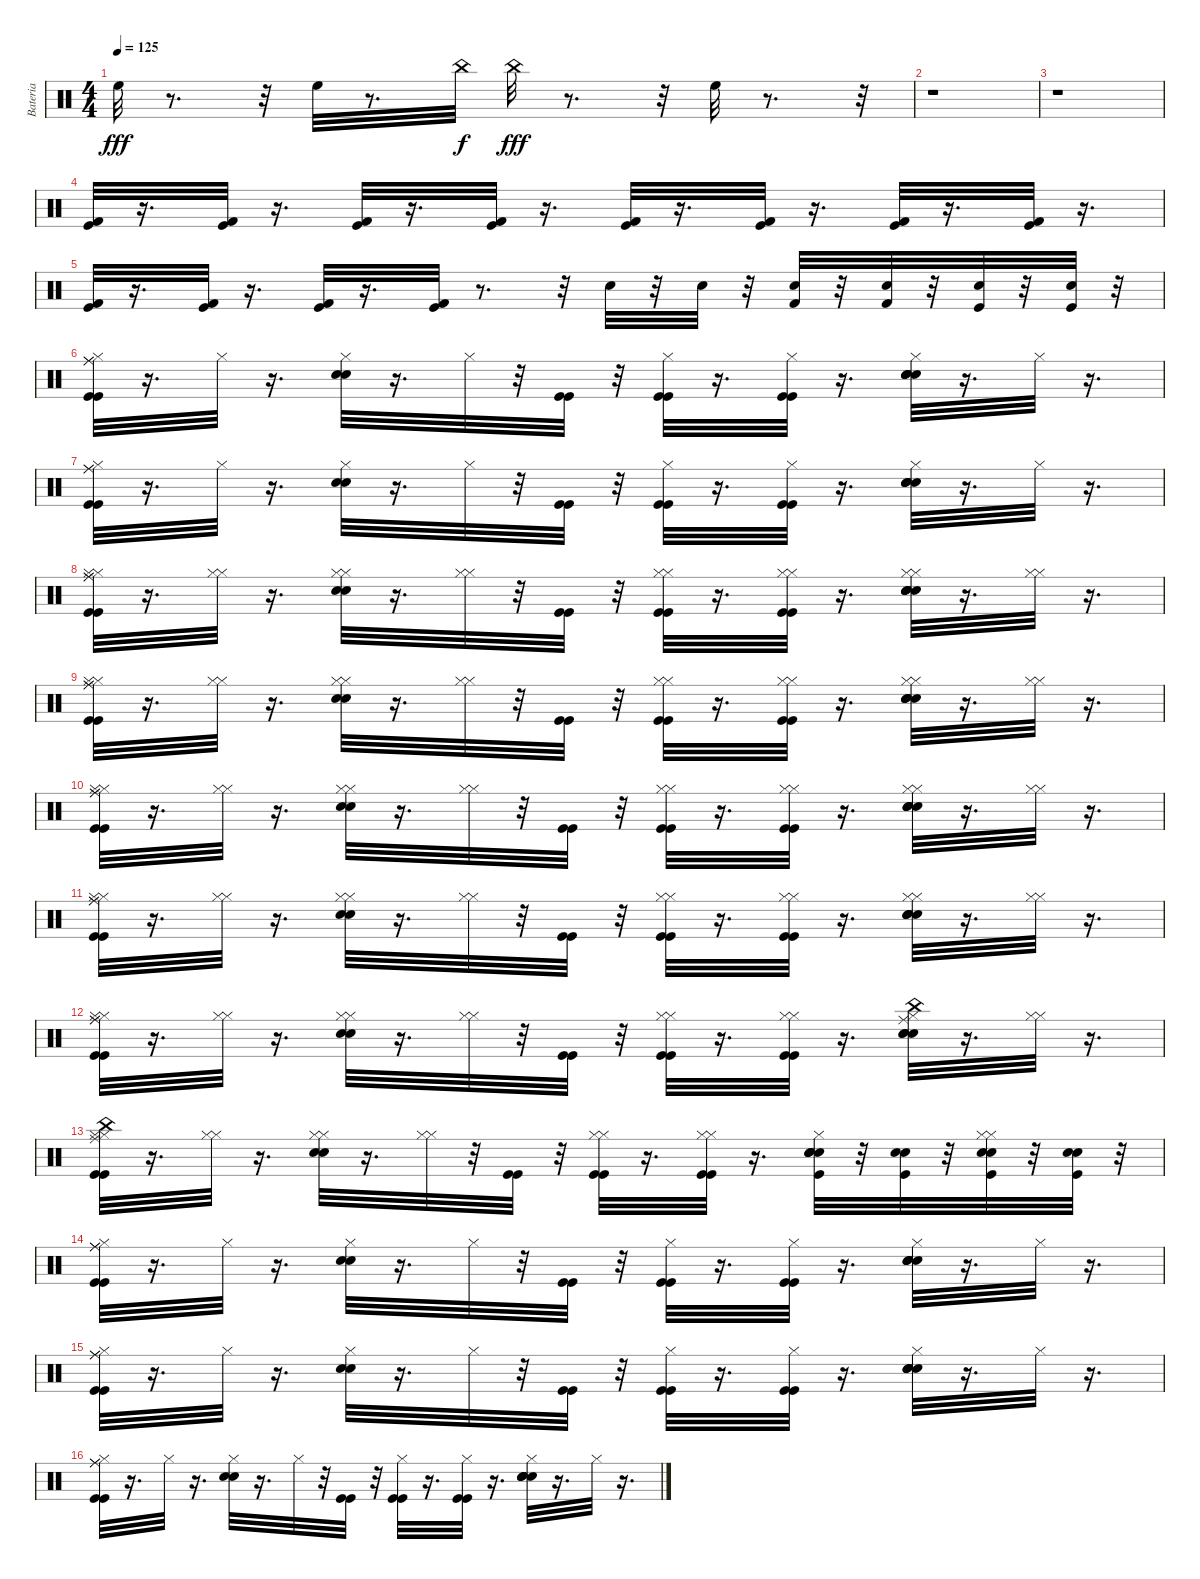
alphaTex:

\track ("Bateria" "Bateria") {instrument percussion}
\staff {score}
\articulation defaults
\ts (4 4)
\tempo 125
\clef neutral
\ks c "High Floor Tom (hit)".32{dy fff}
r.8{d} r.32 "High Floor Tom (hit)".32 r.8{d} "China (hit)".32{dy f} "China (hit)".32{dy fff} r.8{d} r.32 "High Floor Tom (hit)".32 r.8{d} r.32 |
r.1 |
r.1 |
("Kick (hit) 2" "Kick (hit)").32{volume 0} r.16{d} ("Kick (hit) 2" "Kick (hit)").32{volume 0} r.16{d} ("Kick (hit) 2" "Kick (hit)").32{volume 2} r.16{d} ("Kick (hit) 2" "Kick (hit)").32{volume 3} r.16{d} ("Kick (hit) 2" "Kick (hit)").32{volume 5} r.16{d} ("Kick (hit) 2" "Kick (hit)").32{volume 6} r.16{d} ("Kick (hit) 2" "Kick (hit)").32{volume 8} r.16{d} ("Kick (hit) 2" "Kick (hit)").32{volume 9} r.16{d} |
("Kick (hit) 2" "Kick (hit)").32{volume 10} r.16{d} ("Kick (hit) 2" "Kick (hit)").32{volume 12} r.16{d} ("Kick (hit) 2" "Kick (hit)").32{volume 13} r.16{d} ("Kick (hit) 2" "Kick (hit)").32{volume 15} r.8{d} r.32 "Electric Snare (hit)".32{volume 16} r.32 "Electric Snare (hit)".32 r.32 ("Kick (hit) 2" "Electric Snare (hit)").32 r.32 ("Kick (hit) 2" "Electric Snare (hit)").32 r.32 ("Snare (hit) 2" "Kick (hit)").32 r.32 ("Snare (hit) 2" "Kick (hit)").32 r.32 |
("Hi-Hat (closed)" "Kick (hit)" "Ride (middle)" "Kick (hit)" "Ride (middle)").32 r.16{d} "Hi-Hat (closed)".32 r.16{d} ("Snare (hit) 2" "Electric Snare (hit)" "Hi-Hat (closed)").32 r.16{d} "Hi-Hat (closed)".32 r.32 ("Kick (hit)" "Kick (hit)").32 r.32 ("Hi-Hat (closed)" "Kick (hit)" "Kick (hit)").32 r.16{d} ("Hi-Hat (closed)" "Kick (hit)" "Kick (hit)").32 r.16{d} ("Hi-Hat (closed)" "Snare (hit) 2" "Electric Snare (hit)" "Snare (hit) 2" "Electric Snare (hit)").32 r.16{d} "Hi-Hat (closed)".32 r.16{d} |
("Hi-Hat (closed)" "Kick (hit)" "Ride (middle)" "Kick (hit)" "Ride (middle)").32 r.16{d} "Hi-Hat (closed)".32 r.16{d} ("Snare (hit) 2" "Electric Snare (hit)" "Hi-Hat (closed)").32 r.16{d} "Hi-Hat (closed)".32 r.32 ("Kick (hit)" "Kick (hit)").32 r.32 ("Hi-Hat (closed)" "Kick (hit)" "Kick (hit)").32 r.16{d} ("Hi-Hat (closed)" "Kick (hit)" "Kick (hit)").32 r.16{d} ("Hi-Hat (closed)" "Snare (hit) 2" "Electric Snare (hit)" "Snare (hit) 2" "Electric Snare (hit)").32 r.16{d} "Hi-Hat (closed)".32 r.16{d} |
("Kick (hit)" "Hi-Hat (closed)" "Ride (middle)" "Kick (hit)" "Hi-Hat (closed)" "Ride (middle)").32 r.16{d} ("Hi-Hat (closed)" "Hi-Hat (closed)").32 r.16{d} ("Snare (hit) 2" "Electric Snare (hit)" "Hi-Hat (closed)" "Hi-Hat (closed)").32 r.16{d} ("Hi-Hat (closed)" "Hi-Hat (closed)").32 r.32 ("Kick (hit)" "Kick (hit)").32 r.32 ("Kick (hit)" "Hi-Hat (closed)" "Kick (hit)" "Hi-Hat (closed)").32 r.16{d} ("Kick (hit)" "Hi-Hat (closed)" "Kick (hit)" "Hi-Hat (closed)").32 r.16{d} ("Snare (hit) 2" "Electric Snare (hit)" "Hi-Hat (closed)" "Snare (hit) 2" "Electric Snare (hit)" "Hi-Hat (closed)").32 r.16{d} ("Hi-Hat (closed)" "Hi-Hat (closed)").32 r.16{d} |
("Kick (hit)" "Hi-Hat (closed)" "Ride (middle)" "Kick (hit)" "Hi-Hat (closed)" "Ride (middle)").32 r.16{d} ("Hi-Hat (closed)" "Hi-Hat (closed)").32 r.16{d} ("Snare (hit) 2" "Electric Snare (hit)" "Hi-Hat (closed)" "Hi-Hat (closed)").32 r.16{d} ("Hi-Hat (closed)" "Hi-Hat (closed)").32 r.32 ("Kick (hit)" "Kick (hit)").32 r.32 ("Kick (hit)" "Hi-Hat (closed)" "Kick (hit)" "Hi-Hat (closed)").32 r.16{d} ("Kick (hit)" "Hi-Hat (closed)" "Kick (hit)" "Hi-Hat (closed)").32 r.16{d} ("Snare (hit) 2" "Electric Snare (hit)" "Hi-Hat (closed)" "Snare (hit) 2" "Electric Snare (hit)" "Hi-Hat (closed)").32 r.16{d} ("Hi-Hat (closed)" "Hi-Hat (closed)").32 r.16{d} |
("Kick (hit)" "Hi-Hat (closed)" "Ride (middle)" "Kick (hit)" "Hi-Hat (closed)" "Ride (middle)").32 r.16{d} ("Hi-Hat (closed)" "Hi-Hat (closed)").32 r.16{d} ("Snare (hit) 2" "Electric Snare (hit)" "Hi-Hat (closed)" "Hi-Hat (closed)").32 r.16{d} ("Hi-Hat (closed)" "Hi-Hat (closed)").32 r.32 ("Kick (hit)" "Kick (hit)").32 r.32 ("Kick (hit)" "Hi-Hat (closed)" "Kick (hit)" "Hi-Hat (closed)").32 r.16{d} ("Kick (hit)" "Hi-Hat (closed)" "Kick (hit)" "Hi-Hat (closed)").32 r.16{d} ("Snare (hit) 2" "Electric Snare (hit)" "Hi-Hat (closed)" "Snare (hit) 2" "Electric Snare (hit)" "Hi-Hat (closed)").32 r.16{d} ("Hi-Hat (closed)" "Hi-Hat (closed)").32 r.16{d} |
("Kick (hit)" "Hi-Hat (closed)" "Ride (middle)" "Kick (hit)" "Hi-Hat (closed)" "Ride (middle)").32 r.16{d} ("Hi-Hat (closed)" "Hi-Hat (closed)").32 r.16{d} ("Snare (hit) 2" "Electric Snare (hit)" "Hi-Hat (closed)" "Hi-Hat (closed)").32 r.16{d} ("Hi-Hat (closed)" "Hi-Hat (closed)").32 r.32 ("Kick (hit)" "Kick (hit)").32 r.32 ("Kick (hit)" "Hi-Hat (closed)" "Kick (hit)" "Hi-Hat (closed)").32 r.16{d} ("Kick (hit)" "Hi-Hat (closed)" "Kick (hit)" "Hi-Hat (closed)").32 r.16{d} ("Snare (hit) 2" "Electric Snare (hit)" "Hi-Hat (closed)" "Snare (hit) 2" "Electric Snare (hit)" "Hi-Hat (closed)").32 r.16{d} ("Hi-Hat (closed)" "Hi-Hat (closed)").32 r.16{d} |
("Kick (hit)" "Hi-Hat (closed)" "Ride (middle)" "Kick (hit)" "Hi-Hat (closed)" "Ride (middle)").32 r.16{d} ("Hi-Hat (closed)" "Hi-Hat (closed)").32 r.16{d} ("Electric Snare (hit)" "Snare (hit) 2" "Hi-Hat (closed)" "Hi-Hat (closed)").32 r.16{d} ("Hi-Hat (closed)" "Hi-Hat (closed)").32 r.32 ("Kick (hit)" "Kick (hit)").32 r.32 ("Kick (hit)" "Hi-Hat (closed)" "Kick (hit)" "Hi-Hat (closed)").32 r.16{d} ("Kick (hit)" "Hi-Hat (closed)" "Kick (hit)" "Hi-Hat (closed)").32 r.16{d} ("Ride (middle)" "China (hit)" "Snare (hit) 2" "Electric Snare (hit)" "Hi-Hat (closed)" "Snare (hit) 2").32 r.16{d} ("Hi-Hat (closed)" "Hi-Hat (closed)").32 r.16{d} |
("China (hit)" "Kick (hit)" "Hi-Hat (closed)" "Ride (middle)" "Kick (hit)" "Hi-Hat (closed)").32 r.16{d} ("Hi-Hat (closed)" "Hi-Hat (closed)").32 r.16{d} ("Snare (hit) 2" "Electric Snare (hit)" "Hi-Hat (closed)" "Hi-Hat (closed)").32 r.16{d} ("Hi-Hat (closed)" "Hi-Hat (closed)").32 r.32 ("Kick (hit)" "Kick (hit)").32 r.32 ("Kick (hit)" "Hi-Hat (closed)" "Kick (hit)" "Hi-Hat (closed)").32 r.16{d} ("Kick (hit)" "Hi-Hat (closed)" "Kick (hit)" "Hi-Hat (closed)").32 r.16{d} ("Kick (hit)" "Snare (hit) 2" "Electric Snare (hit)" "Hi-Hat (closed)" "Snare (hit) 2" "Electric Snare (hit)").32 r.32 ("Electric Snare (hit)" "Snare (hit) 2" "Kick (hit)").32 r.32 ("Snare (hit) 2" "Electric Snare (hit)" "Kick (hit)" "Hi-Hat (closed)" "Hi-Hat (closed)").32 r.32 ("Electric Snare (hit)" "Snare (hit) 2" "Kick (hit)").32 r.32 |
("Hi-Hat (closed)" "Kick (hit)" "Ride (middle)" "Kick (hit)" "Ride (middle)").32 r.16{d} "Hi-Hat (closed)".32 r.16{d} ("Snare (hit) 2" "Electric Snare (hit)" "Hi-Hat (closed)").32 r.16{d} "Hi-Hat (closed)".32 r.32 ("Kick (hit)" "Kick (hit)").32 r.32 ("Hi-Hat (closed)" "Kick (hit)" "Kick (hit)").32 r.16{d} ("Hi-Hat (closed)" "Kick (hit)" "Kick (hit)").32 r.16{d} ("Hi-Hat (closed)" "Snare (hit) 2" "Electric Snare (hit)" "Snare (hit) 2" "Electric Snare (hit)").32 r.16{d} "Hi-Hat (closed)".32 r.16{d} |
("Hi-Hat (closed)" "Kick (hit)" "Ride (middle)" "Kick (hit)" "Ride (middle)").32 r.16{d} "Hi-Hat (closed)".32 r.16{d} ("Snare (hit) 2" "Electric Snare (hit)" "Hi-Hat (closed)").32 r.16{d} "Hi-Hat (closed)".32 r.32 ("Kick (hit)" "Kick (hit)").32 r.32 ("Hi-Hat (closed)" "Kick (hit)" "Kick (hit)").32 r.16{d} ("Hi-Hat (closed)" "Kick (hit)" "Kick (hit)").32 r.16{d} ("Hi-Hat (closed)" "Snare (hit) 2" "Electric Snare (hit)" "Snare (hit) 2" "Electric Snare (hit)").32 r.16{d} "Hi-Hat (closed)".32 r.16{d} |
("Hi-Hat (closed)" "Kick (hit)" "Ride (middle)" "Kick (hit)" "Ride (middle)").32 r.16{d} "Hi-Hat (closed)".32 r.16{d} ("Snare (hit) 2" "Electric Snare (hit)" "Hi-Hat (closed)").32 r.16{d} "Hi-Hat (closed)".32 r.32 ("Kick (hit)" "Kick (hit)").32 r.32 ("Hi-Hat (closed)" "Kick (hit)" "Kick (hit)").32 r.16{d} ("Hi-Hat (closed)" "Kick (hit)" "Kick (hit)").32 r.16{d} ("Hi-Hat (closed)" "Snare (hit) 2" "Electric Snare (hit)" "Snare (hit) 2" "Electric Snare (hit)").32 r.16{d} "Hi-Hat (closed)".32 r.16{d}
